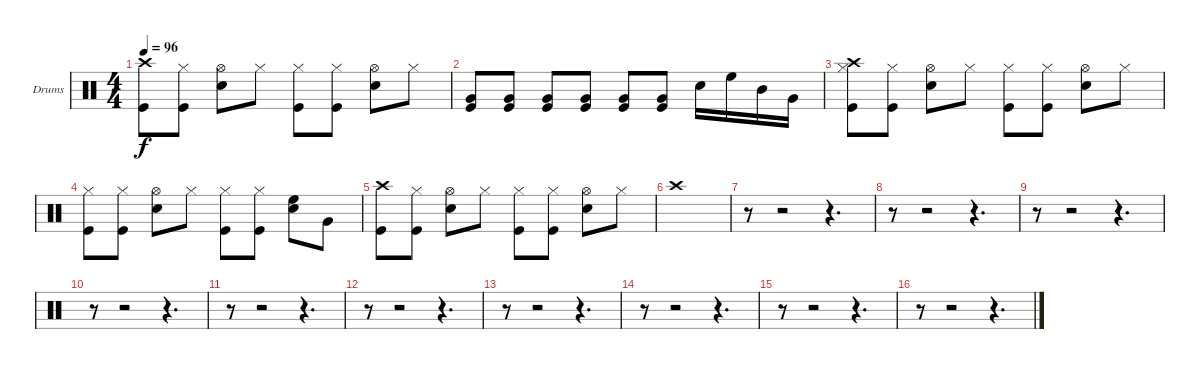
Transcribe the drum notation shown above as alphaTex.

\bracketExtendMode groupsimilarinstruments
\firstSystemTrackNameOrientation horizontal
\otherSystemsTrackNameOrientation horizontal
\track ("Drumkit" "Drums") {instrument percussion}
\staff {score}
\articulation defaults
\ts (4 4)
\tempo 96
\clef neutral
\ks c
("Crash high (hit)" "Kick (hit)").8{dy f} ("Hi-Hat (closed)" "Kick (hit)").8 ("Hi-Hat (open)" "Snare (hit) 2").8 "Hi-Hat (closed)".8 ("Hi-Hat (closed)" "Kick (hit)").8 ("Hi-Hat (closed)" "Kick (hit)").8 ("Hi-Hat (open)" "Snare (hit) 2").8 "Hi-Hat (closed)".8 |
("Kick (hit)" "Very Low Tom (hit)").8 ("Kick (hit)" "Very Low Tom (hit)").8 ("Kick (hit)" "Very Low Tom (hit)").8 ("Kick (hit)" "Very Low Tom (hit)").8 ("Kick (hit)" "Very Low Tom (hit)").8 ("Kick (hit)" "Very Low Tom (hit)").8 "Snare (hit) 2".16 "High Floor Tom (hit)".16 "Mid Tom (hit)".16 "Very Low Tom (hit)".16 |
("Crash high (hit)" "Hi-Hat (closed)" "Kick (hit)").8 ("Hi-Hat (closed)" "Kick (hit)").8 ("Hi-Hat (open)" "Snare (hit) 2").8 "Hi-Hat (closed)".8 ("Hi-Hat (closed)" "Kick (hit)").8 ("Hi-Hat (closed)" "Kick (hit)").8 ("Hi-Hat (open)" "Snare (hit) 2").8 "Hi-Hat (closed)".8 |
("Hi-Hat (closed)" "Kick (hit)").8 ("Hi-Hat (closed)" "Kick (hit)").8 ("Hi-Hat (open)" "Snare (hit) 2").8 "Hi-Hat (closed)".8 ("Hi-Hat (closed)" "Kick (hit)").8 ("Hi-Hat (closed)" "Kick (hit)").8 ("Snare (hit) 2" "High Floor Tom (hit)").8 "Very Low Tom (hit)".8 |
("Crash high (hit)" "Kick (hit)").8 ("Hi-Hat (closed)" "Kick (hit)").8 ("Hi-Hat (open)" "Snare (hit) 2").8 "Hi-Hat (closed)".8 ("Hi-Hat (closed)" "Kick (hit)").8 ("Hi-Hat (closed)" "Kick (hit)").8 ("Hi-Hat (open)" "Snare (hit) 2").8 "Hi-Hat (closed)".8 |
"Crash high (hit)".1 |
r.8 r.2 r.4{d} |
\tempo (98 hide)
r.8 r.2 r.4{d} |
r.8 r.2 r.4{d} |
r.8 r.2 r.4{d} |
r.8 r.2 r.4{d} |
r.8 r.2 r.4{d} |
r.8 r.2 r.4{d} |
r.8 r.2 r.4{d} |
r.8 r.2 r.4{d} |
r.8 r.2 r.4{d}
